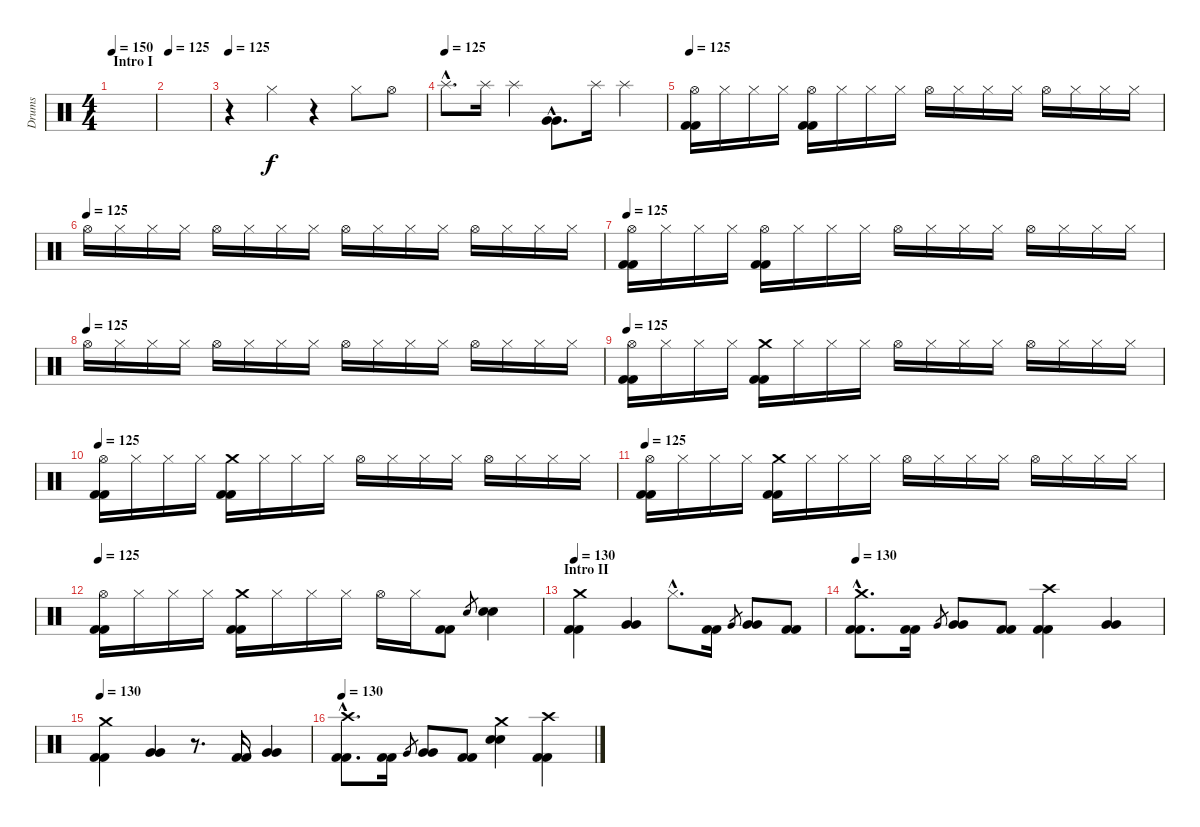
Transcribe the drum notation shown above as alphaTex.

\track ("Drums" "Drums") {instrument percussion}
\staff {score}
\articulation defaults
\ts (4 4)
\section ("" "Intro I")
\tempo 150
\tempo 125
\tempo 150
\clef neutral
\ks c
|
\tempo 125
|
\tempo 125
r.4 "Hi-Hat (closed)".4 r.4 "Hi-Hat (closed)".8 "Hi-Hat (open)".8 |
\tempo (125)
"Splash (hit)"{hac}.8{d} "Splash (hit)".16 "Splash (hit)".4 ("Very Low Tom (hit)"{hac} "Very Low Tom (hit)"{hac}).8{d} "Splash (hit)".16 "Splash (hit)".4 |
\tempo 125
("Hi-Hat (open)" "Kick (hit) 2" "Kick (hit) 2").16 "Hi-Hat (closed)".16 "Hi-Hat (closed)".16 "Hi-Hat (closed)".16 ("Hi-Hat (open)" "Kick (hit) 2" "Kick (hit) 2").16 "Hi-Hat (closed)".16 "Hi-Hat (closed)".16 "Hi-Hat (closed)".16 "Hi-Hat (open)".16 "Hi-Hat (closed)".16 "Hi-Hat (closed)".16 "Hi-Hat (closed)".16 "Hi-Hat (open)".16 "Hi-Hat (closed)".16 "Hi-Hat (closed)".16 "Hi-Hat (closed)".16 |
\tempo (125)
"Hi-Hat (open)".16 "Hi-Hat (closed)".16 "Hi-Hat (closed)".16 "Hi-Hat (closed)".16 "Hi-Hat (open)".16 "Hi-Hat (closed)".16 "Hi-Hat (closed)".16 "Hi-Hat (closed)".16 "Hi-Hat (open)".16 "Hi-Hat (closed)".16 "Hi-Hat (closed)".16 "Hi-Hat (closed)".16 "Hi-Hat (open)".16 "Hi-Hat (closed)".16 "Hi-Hat (closed)".16 "Hi-Hat (closed)".16 |
\tempo 125
("Hi-Hat (open)" "Kick (hit) 2" "Kick (hit) 2").16 "Hi-Hat (closed)".16 "Hi-Hat (closed)".16 "Hi-Hat (closed)".16 ("Hi-Hat (open)" "Kick (hit) 2" "Kick (hit) 2").16 "Hi-Hat (closed)".16 "Hi-Hat (closed)".16 "Hi-Hat (closed)".16 "Hi-Hat (open)".16 "Hi-Hat (closed)".16 "Hi-Hat (closed)".16 "Hi-Hat (closed)".16 "Hi-Hat (open)".16 "Hi-Hat (closed)".16 "Hi-Hat (closed)".16 "Hi-Hat (closed)".16 |
\tempo (125)
"Hi-Hat (open)".16 "Hi-Hat (closed)".16 "Hi-Hat (closed)".16 "Hi-Hat (closed)".16 "Hi-Hat (open)".16 "Hi-Hat (closed)".16 "Hi-Hat (closed)".16 "Hi-Hat (closed)".16 "Hi-Hat (open)".16 "Hi-Hat (closed)".16 "Hi-Hat (closed)".16 "Hi-Hat (closed)".16 "Hi-Hat (open)".16 "Hi-Hat (closed)".16 "Hi-Hat (closed)".16 "Hi-Hat (closed)".16 |
\tempo 125
("Hi-Hat (open)" "Kick (hit) 2" "Kick (hit) 2").16 "Hi-Hat (closed)".16 "Hi-Hat (closed)".16 "Hi-Hat (closed)".16 ("Crash medium (hit)" "Kick (hit) 2" "Kick (hit) 2").16 "Hi-Hat (closed)".16 "Hi-Hat (closed)".16 "Hi-Hat (closed)".16 "Hi-Hat (open)".16 "Hi-Hat (closed)".16 "Hi-Hat (closed)".16 "Hi-Hat (closed)".16 "Hi-Hat (open)".16 "Hi-Hat (closed)".16 "Hi-Hat (closed)".16 "Hi-Hat (closed)".16 |
\tempo 125
("Hi-Hat (open)" "Kick (hit) 2" "Kick (hit) 2").16 "Hi-Hat (closed)".16 "Hi-Hat (closed)".16 "Hi-Hat (closed)".16 ("Crash medium (hit)" "Kick (hit) 2" "Kick (hit) 2").16 "Hi-Hat (closed)".16 "Hi-Hat (closed)".16 "Hi-Hat (closed)".16 "Hi-Hat (open)".16 "Hi-Hat (closed)".16 "Hi-Hat (closed)".16 "Hi-Hat (closed)".16 "Hi-Hat (open)".16 "Hi-Hat (closed)".16 "Hi-Hat (closed)".16 "Hi-Hat (closed)".16 |
\tempo 125
("Hi-Hat (open)" "Kick (hit) 2" "Kick (hit) 2").16 "Hi-Hat (closed)".16 "Hi-Hat (closed)".16 "Hi-Hat (closed)".16 ("Crash medium (hit)" "Kick (hit) 2" "Kick (hit) 2").16 "Hi-Hat (closed)".16 "Hi-Hat (closed)".16 "Hi-Hat (closed)".16 "Hi-Hat (open)".16 "Hi-Hat (closed)".16 "Hi-Hat (closed)".16 "Hi-Hat (closed)".16 "Hi-Hat (open)".16 "Hi-Hat (closed)".16 "Hi-Hat (closed)".16 "Hi-Hat (closed)".16 |
\tempo 125
("Hi-Hat (open)" "Kick (hit) 2" "Kick (hit) 2").16 "Hi-Hat (closed)".16 "Hi-Hat (closed)".16 "Hi-Hat (closed)".16 ("Crash medium (hit)" "Kick (hit) 2" "Kick (hit) 2").16 "Hi-Hat (closed)".16 "Hi-Hat (closed)".16 "Hi-Hat (closed)".16 "Hi-Hat (open)".16 "Hi-Hat (closed)".16 ("Kick (hit) 2" "Kick (hit) 2").8 "Snare (hit) 2".8{gr} ("Snare (hit) 2" "Snare (hit) 2").4 |
\section ("" "Intro II")
\tempo 130
("Crash medium (hit)" "Kick (hit) 2" "Kick (hit) 2").4 ("Very Low Tom (hit)" "Very Low Tom (hit)").4 "Hi-Hat (closed)"{hac}.8{d} ("Kick (hit) 2" "Kick (hit) 2").16 "Very Low Tom (hit)".8{gr} ("Very Low Tom (hit)" "Very Low Tom (hit)").8 ("Kick (hit) 2" "Kick (hit) 2").8 |
\tempo 130
("Crash medium (hit)"{hac} "Kick (hit) 2"{hac} "Kick (hit) 2"{hac}).8{d} ("Kick (hit) 2" "Kick (hit) 2").16 "Very Low Tom (hit)".8{gr} ("Very Low Tom (hit)" "Very Low Tom (hit)").8 ("Kick (hit) 2" "Kick (hit) 2").8 ("Crash high (hit)" "Kick (hit) 2" "Kick (hit) 2").4 ("Very Low Tom (hit)" "Very Low Tom (hit)").4 |
\tempo 130
("Crash medium (hit)" "Kick (hit) 2" "Kick (hit) 2").4 ("Very Low Tom (hit)" "Very Low Tom (hit)").4 r.8{d} ("Kick (hit) 2" "Kick (hit) 2").16 ("Very Low Tom (hit)" "Very Low Tom (hit)").4 |
\tempo 130
("Crash high (hit)"{hac} "Kick (hit) 2"{hac} "Kick (hit) 2"{hac}).8{d} ("Kick (hit) 2" "Kick (hit) 2").16 "Very Low Tom (hit)".8{gr} ("Very Low Tom (hit)" "Very Low Tom (hit)").8 ("Kick (hit) 2" "Kick (hit) 2").8 ("Crash medium (hit)" "Snare (hit) 2" "Snare (hit) 2").4 ("Crash high (hit)" "Kick (hit) 2" "Kick (hit) 2").4
